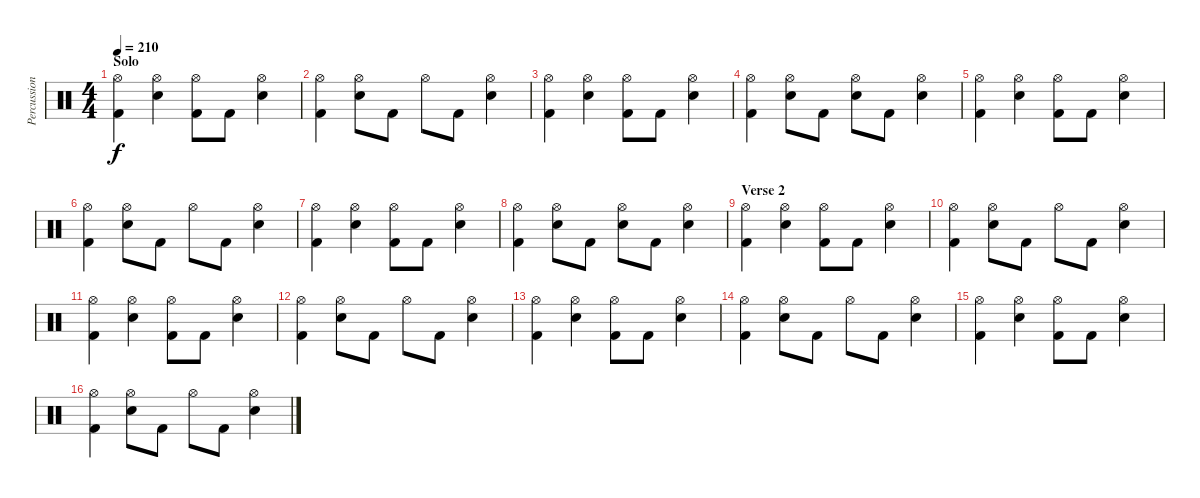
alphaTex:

\track ("Percussion" "Percussion") {instrument percussion}
\staff {score}
\articulation defaults
\ts (4 4)
\section ("" "Solo")
\tempo 210
\clef neutral
\ks c
("Kick (hit) 2" "Hi-Hat (open)").4{dy f} ("Electric Snare (hit)" "Hi-Hat (open)").4 ("Kick (hit) 2" "Hi-Hat (open)").8 "Kick (hit) 2".8 ("Electric Snare (hit)" "Hi-Hat (open)").4 |
("Kick (hit) 2" "Hi-Hat (open)").4 ("Electric Snare (hit)" "Hi-Hat (open)").8 "Kick (hit) 2".8 "Hi-Hat (open)".8 "Kick (hit) 2".8 ("Electric Snare (hit)" "Hi-Hat (open)").4 |
("Kick (hit) 2" "Hi-Hat (open)").4 ("Electric Snare (hit)" "Hi-Hat (open)").4 ("Kick (hit) 2" "Hi-Hat (open)").8 "Kick (hit) 2".8 ("Electric Snare (hit)" "Hi-Hat (open)").4 |
("Kick (hit) 2" "Hi-Hat (open)").4 ("Electric Snare (hit)" "Hi-Hat (open)").8 "Kick (hit) 2".8 ("Electric Snare (hit)" "Hi-Hat (open)").8 "Kick (hit) 2".8 ("Electric Snare (hit)" "Hi-Hat (open)").4 |
("Kick (hit) 2" "Hi-Hat (open)").4 ("Electric Snare (hit)" "Hi-Hat (open)").4 ("Kick (hit) 2" "Hi-Hat (open)").8 "Kick (hit) 2".8 ("Electric Snare (hit)" "Hi-Hat (open)").4 |
("Kick (hit) 2" "Hi-Hat (open)").4 ("Electric Snare (hit)" "Hi-Hat (open)").8 "Kick (hit) 2".8 "Hi-Hat (open)".8 "Kick (hit) 2".8 ("Electric Snare (hit)" "Hi-Hat (open)").4 |
("Kick (hit) 2" "Hi-Hat (open)").4 ("Electric Snare (hit)" "Hi-Hat (open)").4 ("Kick (hit) 2" "Hi-Hat (open)").8 "Kick (hit) 2".8 ("Electric Snare (hit)" "Hi-Hat (open)").4 |
("Kick (hit) 2" "Hi-Hat (open)").4 ("Electric Snare (hit)" "Hi-Hat (open)").8 "Kick (hit) 2".8 ("Electric Snare (hit)" "Hi-Hat (open)").8 "Kick (hit) 2".8 ("Electric Snare (hit)" "Hi-Hat (open)").4 |
\section ("" "Verse 2")
("Kick (hit) 2" "Hi-Hat (open)").4 ("Electric Snare (hit)" "Hi-Hat (open)").4 ("Kick (hit) 2" "Hi-Hat (open)").8 "Kick (hit) 2".8 ("Electric Snare (hit)" "Hi-Hat (open)").4 |
("Kick (hit) 2" "Hi-Hat (open)").4 ("Electric Snare (hit)" "Hi-Hat (open)").8 "Kick (hit) 2".8 "Hi-Hat (open)".8 "Kick (hit) 2".8 ("Electric Snare (hit)" "Hi-Hat (open)").4 |
("Kick (hit) 2" "Hi-Hat (open)").4 ("Electric Snare (hit)" "Hi-Hat (open)").4 ("Kick (hit) 2" "Hi-Hat (open)").8 "Kick (hit) 2".8 ("Electric Snare (hit)" "Hi-Hat (open)").4 |
("Kick (hit) 2" "Hi-Hat (open)").4 ("Electric Snare (hit)" "Hi-Hat (open)").8 "Kick (hit) 2".8 "Hi-Hat (open)".8 "Kick (hit) 2".8 ("Electric Snare (hit)" "Hi-Hat (open)").4 |
("Kick (hit) 2" "Hi-Hat (open)").4 ("Electric Snare (hit)" "Hi-Hat (open)").4 ("Kick (hit) 2" "Hi-Hat (open)").8 "Kick (hit) 2".8 ("Electric Snare (hit)" "Hi-Hat (open)").4 |
("Kick (hit) 2" "Hi-Hat (open)").4 ("Electric Snare (hit)" "Hi-Hat (open)").8 "Kick (hit) 2".8 "Hi-Hat (open)".8 "Kick (hit) 2".8 ("Electric Snare (hit)" "Hi-Hat (open)").4 |
("Kick (hit) 2" "Hi-Hat (open)").4 ("Electric Snare (hit)" "Hi-Hat (open)").4 ("Kick (hit) 2" "Hi-Hat (open)").8 "Kick (hit) 2".8 ("Electric Snare (hit)" "Hi-Hat (open)").4 |
("Kick (hit) 2" "Hi-Hat (open)").4 ("Electric Snare (hit)" "Hi-Hat (open)").8 "Kick (hit) 2".8 "Hi-Hat (open)".8 "Kick (hit) 2".8 ("Electric Snare (hit)" "Hi-Hat (open)").4
